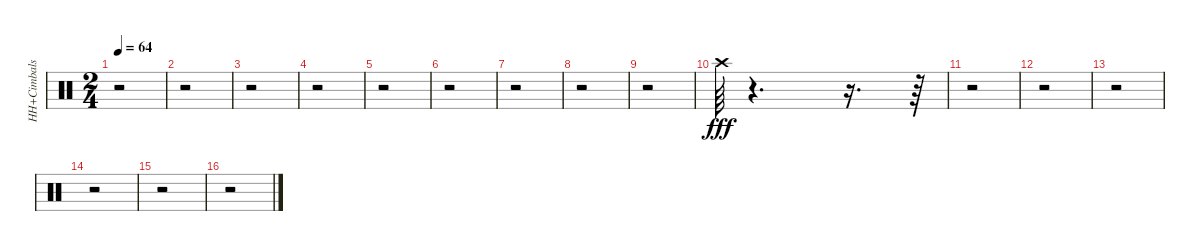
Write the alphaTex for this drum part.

\track ("HH+Cimbals" "HH+Cimbals") {instrument percussion}
\staff {score}
\articulation defaults
\ts (2 4)
\tempo 64
\clef neutral
\ks c
r.2{dy fff} |
r.2 |
r.2 |
r.2 |
r.2 |
r.2 |
r.2 |
r.2 |
r.2 |
"Crash high (hit)".64 r.4{d} r.16{d} r.64 |
r.2 |
r.2 |
r.2 |
r.2 |
r.2 |
r.2
